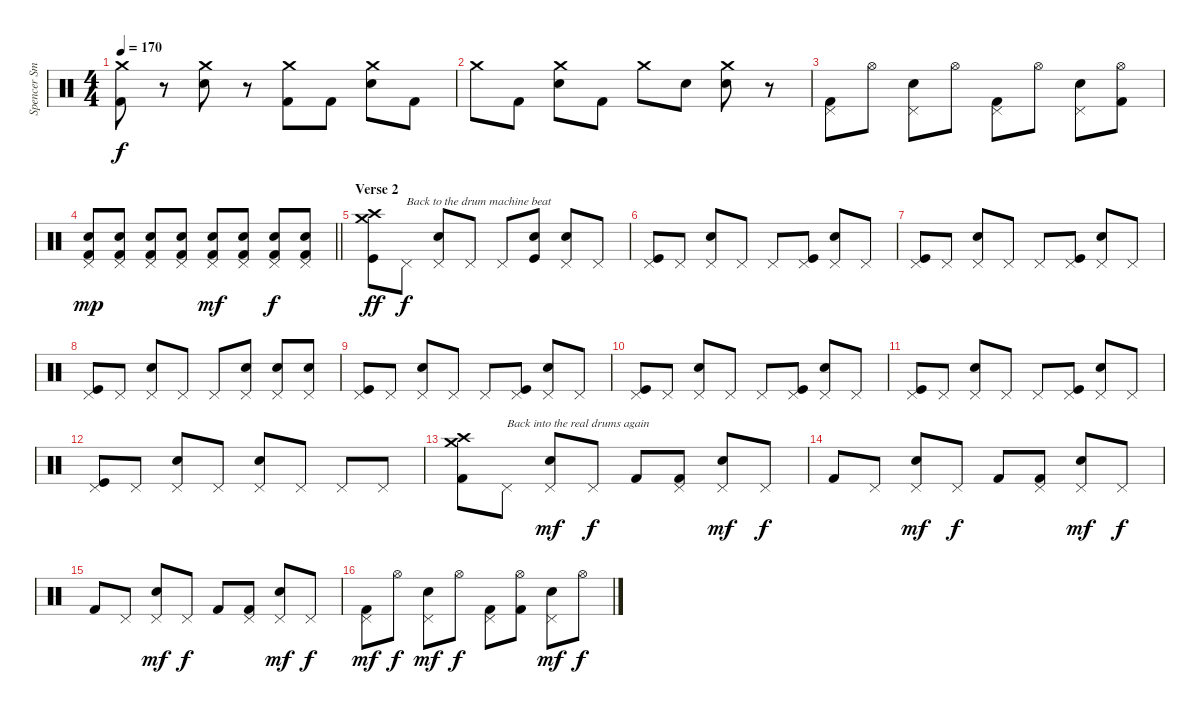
\track ("Spencer Smith (Drums)" "Spencer Sm") {instrument percussion}
\staff {score}
\articulation defaults
\ts (4 4)
\tempo 170
\clef neutral
\ks c
("Crash medium (hit)" "Kick (hit) 2").8{dy f} r.8 ("Crash medium (hit)" "Electric Snare (hit)").8 r.8 ("Crash medium (hit)" "Kick (hit) 2").8 "Kick (hit) 2".8 ("Crash medium (hit)" "Electric Snare (hit)").8 "Kick (hit) 2".8 |
"Crash medium (hit)".8 "Kick (hit) 2".8 ("Crash medium (hit)" "Electric Snare (hit)").8 "Kick (hit) 2".8 "Crash medium (hit)".8 "Electric Snare (hit)".8 ("Crash medium (hit)" "Electric Snare (hit)").8 r.8 |
("Pedal Hi-Hat (hit)" "Kick (hit) 2").8 "Hi-Hat (open)".8 ("Pedal Hi-Hat (hit)" "Electric Snare (hit)").8 "Hi-Hat (open)".8 ("Pedal Hi-Hat (hit)" "Kick (hit) 2").8 "Hi-Hat (open)".8 ("Pedal Hi-Hat (hit)" "Electric Snare (hit)").8 ("Hi-Hat (open)" "Kick (hit) 2").8 |
\barLineRight lightlight
("Pedal Hi-Hat (hit)" "Electric Snare (hit)" "Kick (hit) 2").8{dy mp} ("Pedal Hi-Hat (hit)" "Electric Snare (hit)" "Kick (hit) 2").8 ("Pedal Hi-Hat (hit)" "Electric Snare (hit)" "Kick (hit) 2").8 ("Pedal Hi-Hat (hit)" "Electric Snare (hit)" "Kick (hit) 2").8 ("Pedal Hi-Hat (hit)" "Electric Snare (hit)" "Kick (hit) 2").8{dy mf} ("Pedal Hi-Hat (hit)" "Electric Snare (hit)" "Kick (hit) 2").8 ("Pedal Hi-Hat (hit)" "Electric Snare (hit)" "Kick (hit) 2").8{dy f} ("Pedal Hi-Hat (hit)" "Electric Snare (hit)" "Kick (hit) 2").8 |
\section ("" "Verse 2")
("Crash medium (hit)" "Crash high (hit)" "Kick (hit)").8{dy ff volume 8} "Pedal Hi-Hat (hit)".8{txt "Back to the drum machine beat" dy f} ("Pedal Hi-Hat (hit)" "Snare (hit) 2").8 "Pedal Hi-Hat (hit)".8 "Pedal Hi-Hat (hit)".8 ("Snare (hit)" "Kick (hit)").8 ("Pedal Hi-Hat (hit)" "Snare (hit) 2").8 "Pedal Hi-Hat (hit)".8 |
("Pedal Hi-Hat (hit)" "Kick (hit)").8 "Pedal Hi-Hat (hit)".8 ("Pedal Hi-Hat (hit)" "Snare (hit) 2").8 "Pedal Hi-Hat (hit)".8 "Pedal Hi-Hat (hit)".8 ("Pedal Hi-Hat (hit)" "Kick (hit)").8 ("Pedal Hi-Hat (hit)" "Snare (hit) 2").8 "Pedal Hi-Hat (hit)".8 |
("Pedal Hi-Hat (hit)" "Kick (hit)").8 "Pedal Hi-Hat (hit)".8 ("Pedal Hi-Hat (hit)" "Snare (hit) 2").8 "Pedal Hi-Hat (hit)".8 "Pedal Hi-Hat (hit)".8 ("Pedal Hi-Hat (hit)" "Kick (hit)").8 ("Pedal Hi-Hat (hit)" "Snare (hit) 2").8 "Pedal Hi-Hat (hit)".8 |
("Pedal Hi-Hat (hit)" "Kick (hit)").8 "Pedal Hi-Hat (hit)".8 ("Pedal Hi-Hat (hit)" "Snare (hit) 2").8 "Pedal Hi-Hat (hit)".8 "Pedal Hi-Hat (hit)".8 ("Pedal Hi-Hat (hit)" "Snare (hit) 2").8 ("Pedal Hi-Hat (hit)" "Snare (hit) 2").8 ("Pedal Hi-Hat (hit)" "Snare (hit) 2").8 |
("Pedal Hi-Hat (hit)" "Kick (hit)").8 "Pedal Hi-Hat (hit)".8 ("Pedal Hi-Hat (hit)" "Snare (hit) 2").8 "Pedal Hi-Hat (hit)".8 "Pedal Hi-Hat (hit)".8 ("Pedal Hi-Hat (hit)" "Kick (hit)").8 ("Pedal Hi-Hat (hit)" "Snare (hit) 2").8 "Pedal Hi-Hat (hit)".8 |
("Pedal Hi-Hat (hit)" "Kick (hit)").8 "Pedal Hi-Hat (hit)".8 ("Pedal Hi-Hat (hit)" "Snare (hit) 2").8 "Pedal Hi-Hat (hit)".8 "Pedal Hi-Hat (hit)".8 ("Pedal Hi-Hat (hit)" "Kick (hit)").8 ("Pedal Hi-Hat (hit)" "Snare (hit) 2").8 "Pedal Hi-Hat (hit)".8 |
("Pedal Hi-Hat (hit)" "Kick (hit)").8 "Pedal Hi-Hat (hit)".8 ("Pedal Hi-Hat (hit)" "Snare (hit) 2").8 "Pedal Hi-Hat (hit)".8 "Pedal Hi-Hat (hit)".8 ("Pedal Hi-Hat (hit)" "Kick (hit)").8 ("Pedal Hi-Hat (hit)" "Snare (hit) 2").8 "Pedal Hi-Hat (hit)".8 |
("Pedal Hi-Hat (hit)" "Kick (hit)").8 "Pedal Hi-Hat (hit)".8 ("Pedal Hi-Hat (hit)" "Snare (hit) 2").8 "Pedal Hi-Hat (hit)".8 ("Pedal Hi-Hat (hit)" "Snare (hit) 2").8 "Pedal Hi-Hat (hit)".8 "Pedal Hi-Hat (hit)".8 "Pedal Hi-Hat (hit)".8 |
("Crash high (hit)" "Crash medium (hit)" "Kick (hit) 2").8{volume 16} "Pedal Hi-Hat (hit)".8{txt "Back into the real drums again"} ("Pedal Hi-Hat (hit)" "Electric Snare (hit)").8{dy mf} "Pedal Hi-Hat (hit)".8{dy f} "Kick (hit) 2".8 ("Pedal Hi-Hat (hit)" "Kick (hit) 2").8 ("Pedal Hi-Hat (hit)" "Electric Snare (hit)").8{dy mf} "Pedal Hi-Hat (hit)".8{dy f} |
"Kick (hit) 2".8 "Pedal Hi-Hat (hit)".8 ("Pedal Hi-Hat (hit)" "Electric Snare (hit)").8{dy mf} "Pedal Hi-Hat (hit)".8{dy f} "Kick (hit) 2".8 ("Pedal Hi-Hat (hit)" "Kick (hit) 2").8 ("Pedal Hi-Hat (hit)" "Electric Snare (hit)").8{dy mf} "Pedal Hi-Hat (hit)".8{dy f} |
"Kick (hit) 2".8 "Pedal Hi-Hat (hit)".8 ("Pedal Hi-Hat (hit)" "Electric Snare (hit)").8{dy mf} "Pedal Hi-Hat (hit)".8{dy f} "Kick (hit) 2".8 ("Pedal Hi-Hat (hit)" "Kick (hit) 2").8 ("Pedal Hi-Hat (hit)" "Electric Snare (hit)").8{dy mf} "Pedal Hi-Hat (hit)".8{dy f} |
("Pedal Hi-Hat (hit)" "Kick (hit) 2").8{dy mf} "Hi-Hat (open)".8{dy f} ("Pedal Hi-Hat (hit)" "Electric Snare (hit)").8{dy mf} "Hi-Hat (open)".8{dy f} ("Pedal Hi-Hat (hit)" "Kick (hit) 2").8 ("Hi-Hat (open)" "Kick (hit) 2").8 ("Pedal Hi-Hat (hit)" "Electric Snare (hit)").8{dy mf} "Hi-Hat (open)".8{dy f}
